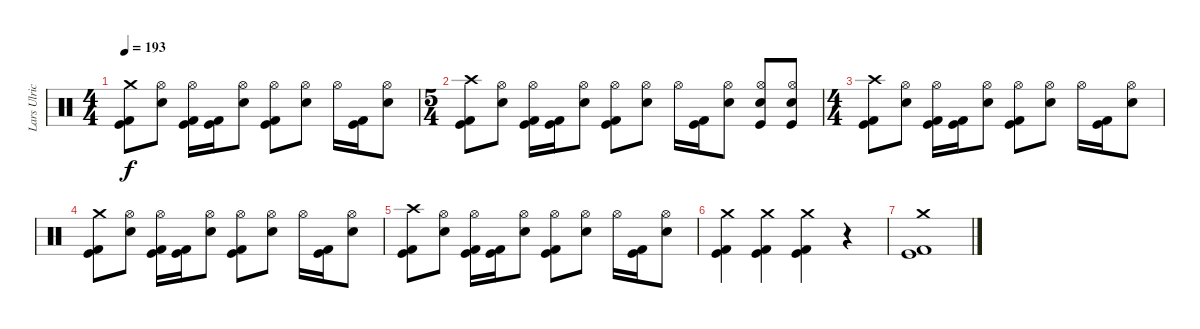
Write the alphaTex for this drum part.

\track ("Lars Ulrich" "Lars Ulric") {instrument percussion}
\staff {score}
\articulation defaults
\ts (4 4)
\tempo 193
\clef neutral
\ks c
("Crash medium (hit)" "Kick (hit) 2" "Kick (hit)").8{dy f} ("Hi-Hat (open)" "Electric Snare (hit)").8 ("Hi-Hat (open)" "Kick (hit) 2" "Kick (hit)").16 ("Kick (hit) 2" "Kick (hit)").16 ("Hi-Hat (open)" "Electric Snare (hit)").8 ("Hi-Hat (open)" "Kick (hit) 2" "Kick (hit)").8 ("Hi-Hat (open)" "Electric Snare (hit)").8 "Hi-Hat (open)".16 ("Kick (hit) 2" "Kick (hit)").16 ("Hi-Hat (open)" "Electric Snare (hit)").8 |
\ts (5 4)
("Crash high (hit)" "Kick (hit) 2" "Kick (hit)").8 ("Hi-Hat (open)" "Electric Snare (hit)").8 ("Hi-Hat (open)" "Kick (hit) 2" "Kick (hit)").16 ("Kick (hit) 2" "Kick (hit)").16 ("Hi-Hat (open)" "Electric Snare (hit)").8 ("Hi-Hat (open)" "Kick (hit) 2" "Kick (hit)").8 ("Hi-Hat (open)" "Electric Snare (hit)").8 "Hi-Hat (open)".16 ("Kick (hit) 2" "Kick (hit)").16 ("Hi-Hat (open)" "Electric Snare (hit)").8 ("Hi-Hat (open)" "Electric Snare (hit)" "Kick (hit)").8 ("Hi-Hat (open)" "Electric Snare (hit)" "Kick (hit)").8 |
\ts (4 4)
("Crash high (hit)" "Kick (hit) 2" "Kick (hit)").8 ("Hi-Hat (open)" "Electric Snare (hit)").8 ("Hi-Hat (open)" "Kick (hit) 2" "Kick (hit)").16 ("Kick (hit) 2" "Kick (hit)").16 ("Hi-Hat (open)" "Electric Snare (hit)").8 ("Hi-Hat (open)" "Kick (hit) 2" "Kick (hit)").8 ("Hi-Hat (open)" "Electric Snare (hit)").8 "Hi-Hat (open)".16 ("Kick (hit) 2" "Kick (hit)").16 ("Hi-Hat (open)" "Electric Snare (hit)").8 |
("Crash medium (hit)" "Kick (hit) 2" "Kick (hit)").8 ("Hi-Hat (open)" "Electric Snare (hit)").8 ("Hi-Hat (open)" "Kick (hit) 2" "Kick (hit)").16 ("Kick (hit) 2" "Kick (hit)").16 ("Hi-Hat (open)" "Electric Snare (hit)").8 ("Hi-Hat (open)" "Kick (hit) 2" "Kick (hit)").8 ("Hi-Hat (open)" "Electric Snare (hit)").8 "Hi-Hat (open)".16 ("Kick (hit) 2" "Kick (hit)").16 ("Hi-Hat (open)" "Electric Snare (hit)").8 |
("Crash high (hit)" "Kick (hit) 2" "Kick (hit)").8 ("Hi-Hat (open)" "Electric Snare (hit)").8 ("Hi-Hat (open)" "Kick (hit) 2" "Kick (hit)").16 ("Kick (hit) 2" "Kick (hit)").16 ("Hi-Hat (open)" "Electric Snare (hit)").8 ("Hi-Hat (open)" "Kick (hit) 2" "Kick (hit)").8 ("Hi-Hat (open)" "Electric Snare (hit)").8 "Hi-Hat (open)".16 ("Kick (hit) 2" "Kick (hit)").16 ("Hi-Hat (open)" "Electric Snare (hit)").8 |
("Crash medium (hit)" "Kick (hit) 2" "Kick (hit)").4 ("Crash medium (hit)" "Kick (hit) 2" "Kick (hit)").4 ("Crash medium (hit)" "Kick (hit) 2" "Kick (hit)").4 r.4 |
("Crash medium (hit)" "Kick (hit)" "Kick (hit) 2").1
